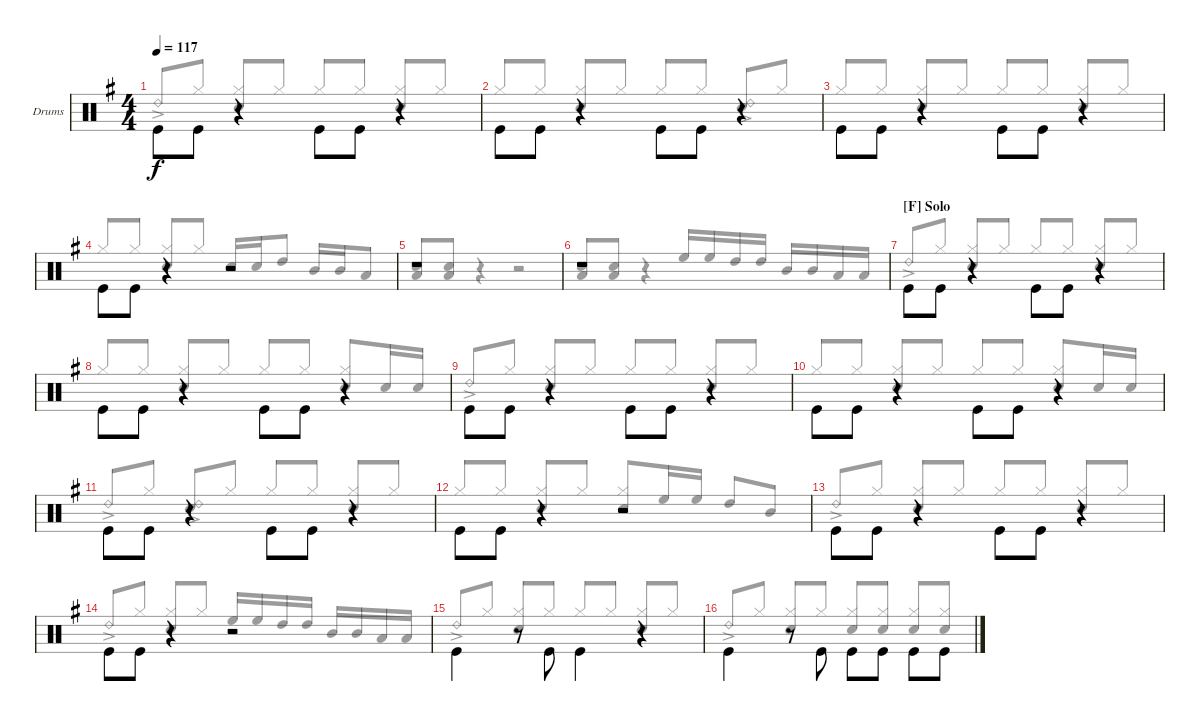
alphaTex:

\defaultSystemsLayout 4
\bracketExtendMode groupsimilarinstruments
\firstSystemTrackNameOrientation horizontal
\otherSystemsTrackNameOrientation horizontal
\track ("Drums" "Drums") {instrument percussion}
\staff {score}
\articulation defaults
\voice
\ts (4 4)
\tempo 117
\clef neutral
\scale
1.02648
\ks g "Kick (hit)".8{dy f beam invert} "Kick (hit)".8
r.4 "Kick (hit)".8{beam invert} "Kick (hit)".8 r.4 |
\scale
0.973518 "Kick (hit)".8{beam invert} "Kick (hit)".8 r.4 "Kick (hit)".8{beam invert} "Kick (hit)".8 r.4 |
\scale
1.02648 "Kick (hit)".8{beam invert} "Kick (hit)".8 r.4 "Kick (hit)".8{beam invert} "Kick (hit)".8 r.4 |
\scale
0.973518 "Kick (hit)".8{beam invert} "Kick (hit)".8 r.4 r.2 |
\scale
1.02648 r.1 |
\scale
0.973518 r.1 |
\section ("F" "Solo")
\scale
1.02648 "Kick (hit)".8{beam invert} "Kick (hit)".8 r.4 "Kick (hit)".8{beam invert} "Kick (hit)".8 r.4 |
\scale
0.973518 "Kick (hit)".8{beam invert} "Kick (hit)".8 r.4 "Kick (hit)".8{beam invert} "Kick (hit)".8 r.4 |
\scale
1.02648 "Kick (hit)".8{beam invert} "Kick (hit)".8 r.4 "Kick (hit)".8{beam invert} "Kick (hit)".8 r.4 |
\scale
0.973518 "Kick (hit)".8{beam invert} "Kick (hit)".8 r.4 "Kick (hit)".8{beam invert} "Kick (hit)".8 r.4 |
\scale
1.02648 "Kick (hit)".8{beam invert} "Kick (hit)".8 r.4 "Kick (hit)".8{beam invert} "Kick (hit)".8 r.4 |
\scale
0.973518 "Kick (hit)".8{beam invert} "Kick (hit)".8 r.4 r.2 |
\scale
1.02648 "Kick (hit)".8{beam invert} "Kick (hit)".8 r.4 "Kick (hit)".8{beam invert} "Kick (hit)".8 r.4 |
\scale
0.973518 "Kick (hit)".8{beam invert} "Kick (hit)".8 r.4 r.2 |
\scale
1.02648 "Kick (hit)".4{beam invert} r.8 "Kick (hit)".8{beam invert} "Kick (hit)".4{beam invert} r.4 |
\scale
0.973518 "Kick (hit)".4{beam invert} r.8 "Kick (hit)".8{beam invert} "Kick (hit)".8{beam invert} "Kick (hit)".8 "Kick (hit)".8{beam invert} "Kick (hit)".8
\voice
\clef neutral
\ottava regular
\simile none
\scale
1.02648
\ks g "Ride (bell) 2"{ac}.8{dy f beam invert} "Hi-Hat (closed)".8
("Hi-Hat (closed)" "Snare (hit) 2").8{beam invert} "Hi-Hat (closed)".8 "Hi-Hat (closed)".8{beam invert} "Hi-Hat (closed)".8 ("Hi-Hat (closed)" "Snare (hit) 2").8{beam invert} "Hi-Hat (closed)".8 |
\scale
0.973518 "Hi-Hat (closed)".8{beam invert} "Hi-Hat (closed)".8 ("Hi-Hat (closed)" "Snare (hit) 2").8{beam invert} "Hi-Hat (closed)".8 "Hi-Hat (closed)".8{beam invert} "Hi-Hat (closed)".8 ("Snare (hit) 2" "Ride (bell) 2"{ac}).8{beam invert} "Hi-Hat (closed)".8 |
\scale
1.02648 "Hi-Hat (closed)".8{beam invert} "Hi-Hat (closed)".8 ("Hi-Hat (closed)" "Snare (hit) 2").8{beam invert} "Hi-Hat (closed)".8 "Hi-Hat (closed)".8{beam invert} "Hi-Hat (closed)".8 ("Hi-Hat (closed)" "Snare (hit) 2").8{beam invert} "Hi-Hat (closed)".8 |
\scale
0.973518 "Hi-Hat (closed)".8{beam invert} "Hi-Hat (closed)".8 ("Hi-Hat (closed)" "Snare (hit) 2").8{beam invert} "Hi-Hat (closed)".8 "Snare (hit) 2".16{beam invert} "Snare (hit) 2".16 "High Tom (hit)".8 "Mid Tom (hit)".16{beam invert} "Mid Tom (hit)".16 "Low Tom (hit)".8 |
\scale
1.02648 ("Low Tom (hit)" "Snare (hit) 2").8{beam invert} ("Low Tom (hit)" "Snare (hit) 2").8 r.4 r.2 |
\scale
0.973518 ("Low Tom (hit)" "Snare (hit) 2").8{beam invert} ("Low Tom (hit)" "Snare (hit) 2").8 r.4 "High Floor Tom (hit)".16{beam invert} "High Floor Tom (hit)".16 "High Tom (hit)".16 "High Tom (hit)".16 "Mid Tom (hit)".16{beam invert} "Mid Tom (hit)".16 "Low Tom (hit)".16 "Low Tom (hit)".16 |
\scale
1.02648 "Ride (bell) 2"{ac}.8{beam invert} "Hi-Hat (closed)".8 ("Hi-Hat (closed)" "Snare (hit) 2").8{beam invert} "Hi-Hat (closed)".8 "Hi-Hat (closed)".8{beam invert} "Hi-Hat (closed)".8 ("Hi-Hat (closed)" "Snare (hit) 2").8{beam invert} "Hi-Hat (closed)".8 |
\scale
0.973518 "Hi-Hat (closed)".8{beam invert} "Hi-Hat (closed)".8 ("Hi-Hat (closed)" "Snare (hit) 2").8{beam invert} "Hi-Hat (closed)".8 "Hi-Hat (closed)".8{beam invert} "Hi-Hat (closed)".8 ("Hi-Hat (closed)" "Snare (hit) 2").8{beam invert} "Snare (hit) 2".16 "Snare (hit) 2".16 |
\scale
1.02648 "Ride (bell) 2"{ac}.8{beam invert} "Hi-Hat (closed)".8 ("Hi-Hat (closed)" "Snare (hit) 2").8{beam invert} "Hi-Hat (closed)".8 "Hi-Hat (closed)".8{beam invert} "Hi-Hat (closed)".8 ("Hi-Hat (closed)" "Snare (hit) 2").8{beam invert} "Hi-Hat (closed)".8 |
\scale
0.973518 "Hi-Hat (closed)".8{beam invert} "Hi-Hat (closed)".8 ("Hi-Hat (closed)" "Snare (hit) 2").8{beam invert} "Hi-Hat (closed)".8 "Hi-Hat (closed)".8{beam invert} "Hi-Hat (closed)".8 ("Hi-Hat (closed)" "Snare (hit) 2").8{beam invert} "Snare (hit) 2".16 "Snare (hit) 2".16 |
\scale
1.02648 "Ride (bell) 2"{ac}.8{beam invert} "Hi-Hat (closed)".8 ("Snare (hit) 2" "Ride (bell) 2"{ac}).8{beam invert} "Hi-Hat (closed)".8 "Hi-Hat (closed)".8{beam invert} "Hi-Hat (closed)".8 ("Hi-Hat (closed)" "Snare (hit) 2").8{beam invert} "Hi-Hat (closed)".8 |
\scale
0.973518 "Hi-Hat (closed)".8{beam invert} "Hi-Hat (closed)".8 ("Hi-Hat (closed)" "Snare (hit) 2").8{beam invert} "Hi-Hat (closed)".8 ("Hi-Hat (closed)" "Snare (hit) 2").8{beam invert} "High Floor Tom (hit)".16 "High Floor Tom (hit)".16 "High Tom (hit)".8{beam invert} "Mid Tom (hit)".8 |
\scale
1.02648 "Ride (bell) 2"{ac}.8{beam invert} "Hi-Hat (closed)".8 ("Hi-Hat (closed)" "Snare (hit) 2").8{beam invert} "Hi-Hat (closed)".8 "Hi-Hat (closed)".8{beam invert} "Hi-Hat (closed)".8 ("Hi-Hat (closed)" "Snare (hit) 2").8{beam invert} "Hi-Hat (closed)".8 |
\scale
0.973518 "Ride (bell) 2"{ac}.8{beam invert} "Hi-Hat (closed)".8 ("Hi-Hat (closed)" "Snare (hit) 2").8{beam invert} "Hi-Hat (closed)".8 "High Floor Tom (hit)".16{beam invert} "High Floor Tom (hit)".16 "High Tom (hit)".16 "High Tom (hit)".16 "Mid Tom (hit)".16{beam invert} "Mid Tom (hit)".16 "Low Tom (hit)".16 "Low Tom (hit)".16 |
\scale
1.02648 "Ride (bell) 2"{ac}.8{beam invert} "Hi-Hat (closed)".8 ("Hi-Hat (closed)" "Snare (hit) 2").8{beam invert} "Hi-Hat (closed)".8 "Hi-Hat (closed)".8{beam invert} "Hi-Hat (closed)".8 ("Hi-Hat (closed)" "Snare (hit) 2").8{beam invert} "Hi-Hat (closed)".8 |
\scale
0.973518 "Ride (bell) 2"{ac}.8{beam invert} "Hi-Hat (closed)".8 ("Hi-Hat (closed)" "Snare (hit) 2").8{beam invert} "Hi-Hat (closed)".8 ("Hi-Hat (closed)" "Snare (hit) 2").8{beam invert} ("Hi-Hat (closed)" "Snare (hit) 2").8 ("Hi-Hat (closed)" "Snare (hit) 2").8{beam invert} ("Hi-Hat (closed)" "Snare (hit) 2").8
